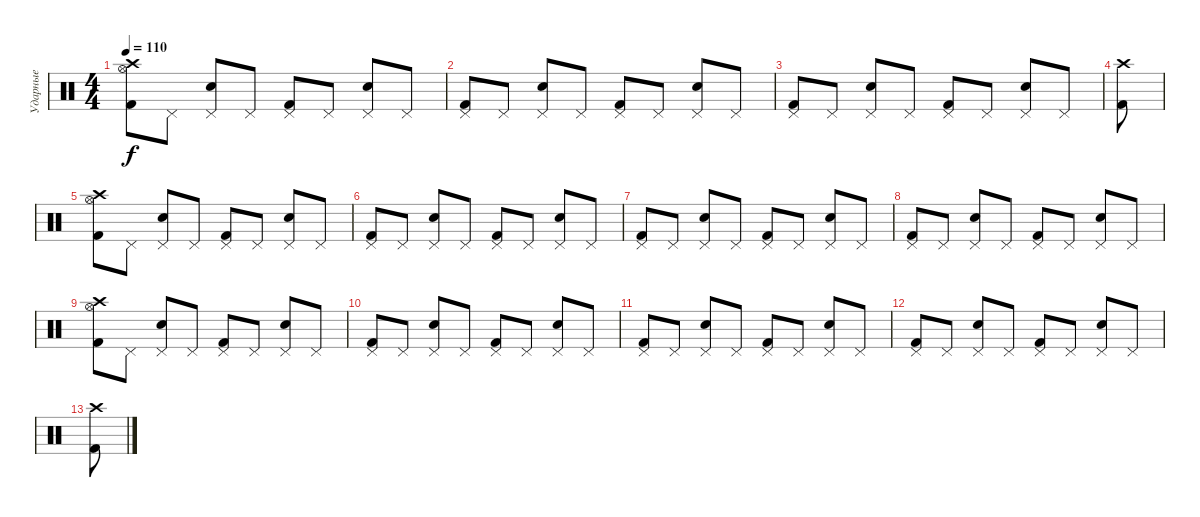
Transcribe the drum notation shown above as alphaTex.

\track ("Ударные" "Ударные") {instrument percussion}
\staff {score}
\articulation defaults
\ts (4 4)
\tempo 110
\clef neutral
\ks c
("Crash high (hit)" "Hi-Hat (open)" "Kick (hit) 2").8{dy f} "Pedal Hi-Hat (hit)".8 ("Pedal Hi-Hat (hit)" "Electric Snare (hit)").8 "Pedal Hi-Hat (hit)".8 ("Pedal Hi-Hat (hit)" "Kick (hit) 2").8 "Pedal Hi-Hat (hit)".8 ("Pedal Hi-Hat (hit)" "Electric Snare (hit)").8 "Pedal Hi-Hat (hit)".8 |
("Pedal Hi-Hat (hit)" "Kick (hit) 2").8 "Pedal Hi-Hat (hit)".8 ("Pedal Hi-Hat (hit)" "Electric Snare (hit)").8 "Pedal Hi-Hat (hit)".8 ("Pedal Hi-Hat (hit)" "Kick (hit) 2").8 "Pedal Hi-Hat (hit)".8 ("Pedal Hi-Hat (hit)" "Electric Snare (hit)").8 "Pedal Hi-Hat (hit)".8 |
("Pedal Hi-Hat (hit)" "Kick (hit) 2").8 "Pedal Hi-Hat (hit)".8 ("Pedal Hi-Hat (hit)" "Electric Snare (hit)").8 "Pedal Hi-Hat (hit)".8 ("Pedal Hi-Hat (hit)" "Kick (hit) 2").8 "Pedal Hi-Hat (hit)".8 ("Pedal Hi-Hat (hit)" "Electric Snare (hit)").8 "Pedal Hi-Hat (hit)".8 |
("Crash high (hit)" "Kick (hit) 2").8 |
("Crash high (hit)" "Hi-Hat (open)" "Kick (hit) 2").8 "Pedal Hi-Hat (hit)".8 ("Pedal Hi-Hat (hit)" "Electric Snare (hit)").8 "Pedal Hi-Hat (hit)".8 ("Pedal Hi-Hat (hit)" "Kick (hit) 2").8 "Pedal Hi-Hat (hit)".8 ("Pedal Hi-Hat (hit)" "Electric Snare (hit)").8 "Pedal Hi-Hat (hit)".8 |
("Pedal Hi-Hat (hit)" "Kick (hit) 2").8 "Pedal Hi-Hat (hit)".8 ("Pedal Hi-Hat (hit)" "Electric Snare (hit)").8 "Pedal Hi-Hat (hit)".8 ("Pedal Hi-Hat (hit)" "Kick (hit) 2").8 "Pedal Hi-Hat (hit)".8 ("Pedal Hi-Hat (hit)" "Electric Snare (hit)").8 "Pedal Hi-Hat (hit)".8 |
("Pedal Hi-Hat (hit)" "Kick (hit) 2").8 "Pedal Hi-Hat (hit)".8 ("Pedal Hi-Hat (hit)" "Electric Snare (hit)").8 "Pedal Hi-Hat (hit)".8 ("Pedal Hi-Hat (hit)" "Kick (hit) 2").8 "Pedal Hi-Hat (hit)".8 ("Pedal Hi-Hat (hit)" "Electric Snare (hit)").8 "Pedal Hi-Hat (hit)".8 |
("Pedal Hi-Hat (hit)" "Kick (hit) 2").8 "Pedal Hi-Hat (hit)".8 ("Pedal Hi-Hat (hit)" "Electric Snare (hit)").8 "Pedal Hi-Hat (hit)".8 ("Pedal Hi-Hat (hit)" "Kick (hit) 2").8 "Pedal Hi-Hat (hit)".8 ("Pedal Hi-Hat (hit)" "Electric Snare (hit)").8 "Pedal Hi-Hat (hit)".8 |
("Crash high (hit)" "Hi-Hat (open)" "Kick (hit) 2").8 "Pedal Hi-Hat (hit)".8 ("Pedal Hi-Hat (hit)" "Electric Snare (hit)").8 "Pedal Hi-Hat (hit)".8 ("Pedal Hi-Hat (hit)" "Kick (hit) 2").8 "Pedal Hi-Hat (hit)".8 ("Pedal Hi-Hat (hit)" "Electric Snare (hit)").8 "Pedal Hi-Hat (hit)".8 |
("Pedal Hi-Hat (hit)" "Kick (hit) 2").8 "Pedal Hi-Hat (hit)".8 ("Pedal Hi-Hat (hit)" "Electric Snare (hit)").8 "Pedal Hi-Hat (hit)".8 ("Pedal Hi-Hat (hit)" "Kick (hit) 2").8 "Pedal Hi-Hat (hit)".8 ("Pedal Hi-Hat (hit)" "Electric Snare (hit)").8 "Pedal Hi-Hat (hit)".8 |
("Pedal Hi-Hat (hit)" "Kick (hit) 2").8 "Pedal Hi-Hat (hit)".8 ("Pedal Hi-Hat (hit)" "Electric Snare (hit)").8 "Pedal Hi-Hat (hit)".8 ("Pedal Hi-Hat (hit)" "Kick (hit) 2").8 "Pedal Hi-Hat (hit)".8 ("Pedal Hi-Hat (hit)" "Electric Snare (hit)").8 "Pedal Hi-Hat (hit)".8 |
("Pedal Hi-Hat (hit)" "Kick (hit) 2").8 "Pedal Hi-Hat (hit)".8 ("Pedal Hi-Hat (hit)" "Electric Snare (hit)").8 "Pedal Hi-Hat (hit)".8 ("Pedal Hi-Hat (hit)" "Kick (hit) 2").8 "Pedal Hi-Hat (hit)".8 ("Pedal Hi-Hat (hit)" "Electric Snare (hit)").8 "Pedal Hi-Hat (hit)".8 |
("Crash high (hit)" "Kick (hit) 2").8
